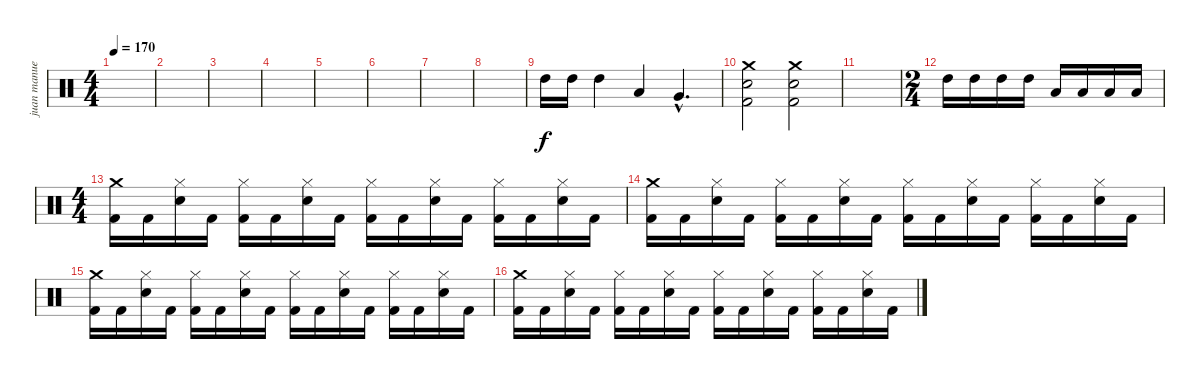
\track ("juan manuel" "juan manue") {instrument percussion}
\staff {score}
\articulation defaults
\ts (4 4)
\tempo 170
\clef neutral
\ks c
|
|
|
|
|
|
|
|
"High Tom (hit)".16 "High Tom (hit)".16 "High Tom (hit)".4 "Low Tom (hit)".4 "Very Low Tom (hit)"{hac}.4{d} |
("Crash medium (hit)" "Electric Snare (hit)" "Kick (hit) 2").2 ("Crash medium (hit)" "Electric Snare (hit)" "Kick (hit) 2").2 |
|
\ts (2 4)
"High Tom (hit)".16 "High Tom (hit)".16 "High Tom (hit)".16 "High Tom (hit)".16 "Low Tom (hit)".16 "Low Tom (hit)".16 "Low Tom (hit)".16 "Low Tom (hit)".16 |
\ts (4 4)
("Crash medium (hit)" "Kick (hit) 2").16 "Kick (hit) 2".16 ("Hi-Hat (closed)" "Electric Snare (hit)").16 "Kick (hit) 2".16 ("Hi-Hat (closed)" "Kick (hit) 2").16 "Kick (hit) 2".16 ("Hi-Hat (closed)" "Electric Snare (hit)").16 "Kick (hit) 2".16 ("Hi-Hat (closed)" "Kick (hit) 2").16 "Kick (hit) 2".16 ("Hi-Hat (closed)" "Electric Snare (hit)").16 "Kick (hit) 2".16 ("Hi-Hat (closed)" "Kick (hit) 2").16 "Kick (hit) 2".16 ("Hi-Hat (closed)" "Electric Snare (hit)").16 "Kick (hit) 2".16 |
("Crash medium (hit)" "Kick (hit) 2").16 "Kick (hit) 2".16 ("Hi-Hat (closed)" "Electric Snare (hit)").16 "Kick (hit) 2".16 ("Hi-Hat (closed)" "Kick (hit) 2").16 "Kick (hit) 2".16 ("Hi-Hat (closed)" "Electric Snare (hit)").16 "Kick (hit) 2".16 ("Hi-Hat (closed)" "Kick (hit) 2").16 "Kick (hit) 2".16 ("Hi-Hat (closed)" "Electric Snare (hit)").16 "Kick (hit) 2".16 ("Hi-Hat (closed)" "Kick (hit) 2").16 "Kick (hit) 2".16 ("Hi-Hat (closed)" "Electric Snare (hit)").16 "Kick (hit) 2".16 |
("Crash medium (hit)" "Kick (hit) 2").16 "Kick (hit) 2".16 ("Hi-Hat (closed)" "Electric Snare (hit)").16 "Kick (hit) 2".16 ("Hi-Hat (closed)" "Kick (hit) 2").16 "Kick (hit) 2".16 ("Hi-Hat (closed)" "Electric Snare (hit)").16 "Kick (hit) 2".16 ("Hi-Hat (closed)" "Kick (hit) 2").16 "Kick (hit) 2".16 ("Hi-Hat (closed)" "Electric Snare (hit)").16 "Kick (hit) 2".16 ("Hi-Hat (closed)" "Kick (hit) 2").16 "Kick (hit) 2".16 ("Hi-Hat (closed)" "Electric Snare (hit)").16 "Kick (hit) 2".16 |
("Crash medium (hit)" "Kick (hit) 2").16 "Kick (hit) 2".16 ("Hi-Hat (closed)" "Electric Snare (hit)").16 "Kick (hit) 2".16 ("Hi-Hat (closed)" "Kick (hit) 2").16 "Kick (hit) 2".16 ("Hi-Hat (closed)" "Electric Snare (hit)").16 "Kick (hit) 2".16 ("Hi-Hat (closed)" "Kick (hit) 2").16 "Kick (hit) 2".16 ("Hi-Hat (closed)" "Electric Snare (hit)").16 "Kick (hit) 2".16 ("Hi-Hat (closed)" "Kick (hit) 2").16 "Kick (hit) 2".16 ("Hi-Hat (closed)" "Electric Snare (hit)").16 "Kick (hit) 2".16
